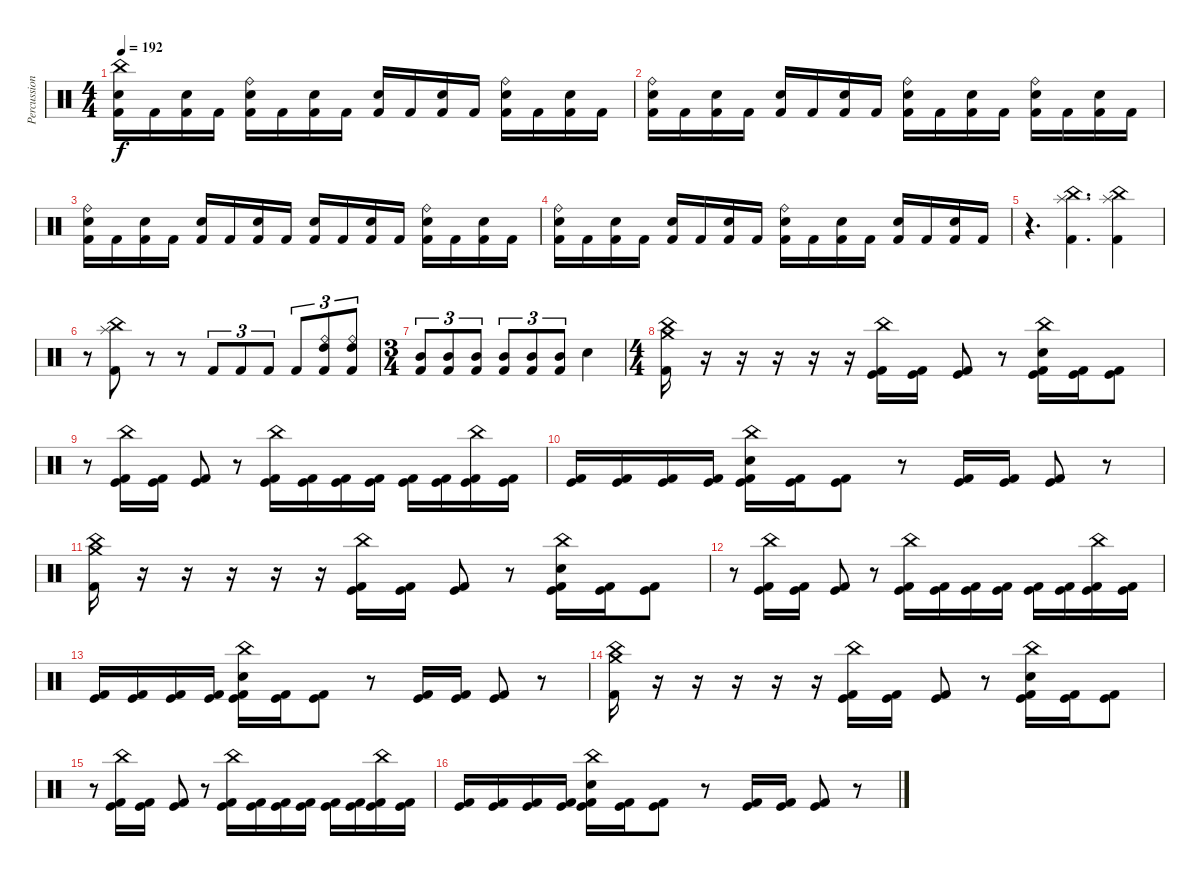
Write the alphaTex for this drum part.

\track ("Percussion" "Percussion") {instrument percussion}
\staff {score}
\articulation defaults
\ts (4 4)
\tempo 192
\clef neutral
\ks c
("China (hit)" "Electric Snare (hit)" "Kick (hit) 2").16{dy f} "Kick (hit) 2".16 ("Electric Snare (hit)" "Kick (hit) 2").16 "Kick (hit) 2".16 ("Ride (bell)" "Electric Snare (hit)" "Kick (hit) 2").16 "Kick (hit) 2".16 ("Electric Snare (hit)" "Kick (hit) 2").16 "Kick (hit) 2".16 ("Electric Snare (hit)" "Kick (hit) 2").16 "Kick (hit) 2".16 ("Electric Snare (hit)" "Kick (hit) 2").16 "Kick (hit) 2".16 ("Ride (bell)" "Electric Snare (hit)" "Kick (hit) 2").16 "Kick (hit) 2".16 ("Electric Snare (hit)" "Kick (hit) 2").16 "Kick (hit) 2".16 |
("Ride (bell)" "Electric Snare (hit)" "Kick (hit) 2").16 "Kick (hit) 2".16 ("Electric Snare (hit)" "Kick (hit) 2").16 "Kick (hit) 2".16 ("Electric Snare (hit)" "Kick (hit) 2").16 "Kick (hit) 2".16 ("Electric Snare (hit)" "Kick (hit) 2").16 "Kick (hit) 2".16 ("Ride (bell)" "Electric Snare (hit)" "Kick (hit) 2").16 "Kick (hit) 2".16 ("Electric Snare (hit)" "Kick (hit) 2").16 "Kick (hit) 2".16 ("Ride (bell)" "Electric Snare (hit)" "Kick (hit) 2").16 "Kick (hit) 2".16 ("Electric Snare (hit)" "Kick (hit) 2").16 "Kick (hit) 2".16 |
("Ride (bell)" "Electric Snare (hit)" "Kick (hit) 2").16 "Kick (hit) 2".16 ("Electric Snare (hit)" "Kick (hit) 2").16 "Kick (hit) 2".16 ("Electric Snare (hit)" "Kick (hit) 2").16 "Kick (hit) 2".16 ("Electric Snare (hit)" "Kick (hit) 2").16 "Kick (hit) 2".16 ("Electric Snare (hit)" "Kick (hit) 2").16 "Kick (hit) 2".16 ("Electric Snare (hit)" "Kick (hit) 2").16 "Kick (hit) 2".16 ("Ride (bell)" "Electric Snare (hit)" "Kick (hit) 2").16 "Kick (hit) 2".16 ("Electric Snare (hit)" "Kick (hit) 2").16 "Kick (hit) 2".16 |
("Ride (bell)" "Electric Snare (hit)" "Kick (hit) 2").16 "Kick (hit) 2".16 ("Electric Snare (hit)" "Kick (hit) 2").16 "Kick (hit) 2".16 ("Electric Snare (hit)" "Kick (hit) 2").16 "Kick (hit) 2".16 ("Electric Snare (hit)" "Kick (hit) 2").16 "Kick (hit) 2".16 ("Ride (bell)" "Electric Snare (hit)" "Kick (hit) 2").16 "Kick (hit) 2".16 ("Electric Snare (hit)" "Kick (hit) 2").16 "Kick (hit) 2".16 ("Electric Snare (hit)" "Kick (hit) 2").16 "Kick (hit) 2".16 ("Electric Snare (hit)" "Kick (hit) 2").16 "Kick (hit) 2".16 |
r.4{d} ("China (hit)" "Splash (hit)" "Kick (hit) 2").4{d} ("China (hit)" "Splash (hit)" "Kick (hit) 2").4 |
r.8 ("China (hit)" "Splash (hit)" "Kick (hit) 2").8 r.8 r.8 "Kick (hit) 2".8{tu (3 2)} "Kick (hit) 2".8{tu (3 2)} "Kick (hit) 2".8{tu (3 2)} "Kick (hit) 2".8{tu (3 2)} ("Ride (bell)" "High Tom (hit)" "Kick (hit) 2").8{tu (3 2)} ("Ride (bell)" "High Tom (hit)" "Kick (hit) 2").8{tu (3 2)} |
\ts (3 4)
("Mid Tom (hit)" "Kick (hit) 2").8{tu (3 2)} ("Mid Tom (hit)" "Kick (hit) 2").8{tu (3 2)} ("Mid Tom (hit)" "Kick (hit) 2").8{tu (3 2)} ("Mid Tom (hit)" "Kick (hit) 2").8{tu (3 2)} ("Mid Tom (hit)" "Kick (hit) 2").8{tu (3 2)} ("Mid Tom (hit)" "Kick (hit) 2").8{tu (3 2)} "Electric Snare (hit)".4 |
\ts (4 4)
("Crash medium (hit)" "China (hit)" "Kick (hit) 2").16 r.16 r.16 r.16 r.16 r.16 ("Kick (hit)" "China (hit)" "Kick (hit) 2").16 ("Kick (hit)" "Kick (hit) 2").16 ("Kick (hit)" "Kick (hit) 2").8 r.8 ("Kick (hit)" "China (hit)" "Electric Snare (hit)" "Kick (hit) 2").16 ("Kick (hit)" "Kick (hit) 2").16 ("Kick (hit)" "Kick (hit) 2").8 |
r.8 ("Kick (hit)" "China (hit)" "Kick (hit) 2").16 ("Kick (hit)" "Kick (hit) 2").16 ("Kick (hit)" "Kick (hit) 2").8 r.8 ("Kick (hit)" "China (hit)" "Kick (hit) 2").16 ("Kick (hit)" "Kick (hit) 2").16 ("Kick (hit)" "Kick (hit) 2").16 ("Kick (hit)" "Kick (hit) 2").16 ("Kick (hit)" "Kick (hit) 2").16 ("Kick (hit)" "Kick (hit) 2").16 ("Kick (hit)" "China (hit)" "Kick (hit) 2").16 ("Kick (hit)" "Kick (hit) 2").16 |
("Kick (hit)" "Kick (hit) 2").16 ("Kick (hit)" "Kick (hit) 2").16 ("Kick (hit)" "Kick (hit) 2").16 ("Kick (hit)" "Kick (hit) 2").16 ("Kick (hit)" "China (hit)" "Electric Snare (hit)" "Kick (hit) 2").16 ("Kick (hit)" "Kick (hit) 2").16 ("Kick (hit)" "Kick (hit) 2").8 r.8 ("Kick (hit)" "Kick (hit) 2").16 ("Kick (hit)" "Kick (hit) 2").16 ("Kick (hit)" "Kick (hit) 2").8 r.8 |
("Crash medium (hit)" "China (hit)" "Kick (hit) 2").16 r.16 r.16 r.16 r.16 r.16 ("Kick (hit)" "China (hit)" "Kick (hit) 2").16 ("Kick (hit)" "Kick (hit) 2").16 ("Kick (hit)" "Kick (hit) 2").8 r.8 ("Kick (hit)" "China (hit)" "Electric Snare (hit)" "Kick (hit) 2").16 ("Kick (hit)" "Kick (hit) 2").16 ("Kick (hit)" "Kick (hit) 2").8 |
r.8 ("Kick (hit)" "China (hit)" "Kick (hit) 2").16 ("Kick (hit)" "Kick (hit) 2").16 ("Kick (hit)" "Kick (hit) 2").8 r.8 ("Kick (hit)" "China (hit)" "Kick (hit) 2").16 ("Kick (hit)" "Kick (hit) 2").16 ("Kick (hit)" "Kick (hit) 2").16 ("Kick (hit)" "Kick (hit) 2").16 ("Kick (hit)" "Kick (hit) 2").16 ("Kick (hit)" "Kick (hit) 2").16 ("Kick (hit)" "China (hit)" "Kick (hit) 2").16 ("Kick (hit)" "Kick (hit) 2").16 |
("Kick (hit)" "Kick (hit) 2").16 ("Kick (hit)" "Kick (hit) 2").16 ("Kick (hit)" "Kick (hit) 2").16 ("Kick (hit)" "Kick (hit) 2").16 ("Kick (hit)" "China (hit)" "Electric Snare (hit)" "Kick (hit) 2").16 ("Kick (hit)" "Kick (hit) 2").16 ("Kick (hit)" "Kick (hit) 2").8 r.8 ("Kick (hit)" "Kick (hit) 2").16 ("Kick (hit)" "Kick (hit) 2").16 ("Kick (hit)" "Kick (hit) 2").8 r.8 |
("Crash medium (hit)" "China (hit)" "Kick (hit) 2").16 r.16 r.16 r.16 r.16 r.16 ("Kick (hit)" "China (hit)" "Kick (hit) 2").16 ("Kick (hit)" "Kick (hit) 2").16 ("Kick (hit)" "Kick (hit) 2").8 r.8 ("Kick (hit)" "China (hit)" "Electric Snare (hit)" "Kick (hit) 2").16 ("Kick (hit)" "Kick (hit) 2").16 ("Kick (hit)" "Kick (hit) 2").8 |
r.8 ("Kick (hit)" "China (hit)" "Kick (hit) 2").16 ("Kick (hit)" "Kick (hit) 2").16 ("Kick (hit)" "Kick (hit) 2").8 r.8 ("Kick (hit)" "China (hit)" "Kick (hit) 2").16 ("Kick (hit)" "Kick (hit) 2").16 ("Kick (hit)" "Kick (hit) 2").16 ("Kick (hit)" "Kick (hit) 2").16 ("Kick (hit)" "Kick (hit) 2").16 ("Kick (hit)" "Kick (hit) 2").16 ("Kick (hit)" "China (hit)" "Kick (hit) 2").16 ("Kick (hit)" "Kick (hit) 2").16 |
("Kick (hit)" "Kick (hit) 2").16 ("Kick (hit)" "Kick (hit) 2").16 ("Kick (hit)" "Kick (hit) 2").16 ("Kick (hit)" "Kick (hit) 2").16 ("Kick (hit)" "China (hit)" "Electric Snare (hit)" "Kick (hit) 2").16 ("Kick (hit)" "Kick (hit) 2").16 ("Kick (hit)" "Kick (hit) 2").8 r.8 ("Kick (hit)" "Kick (hit) 2").16 ("Kick (hit)" "Kick (hit) 2").16 ("Kick (hit)" "Kick (hit) 2").8 r.8
